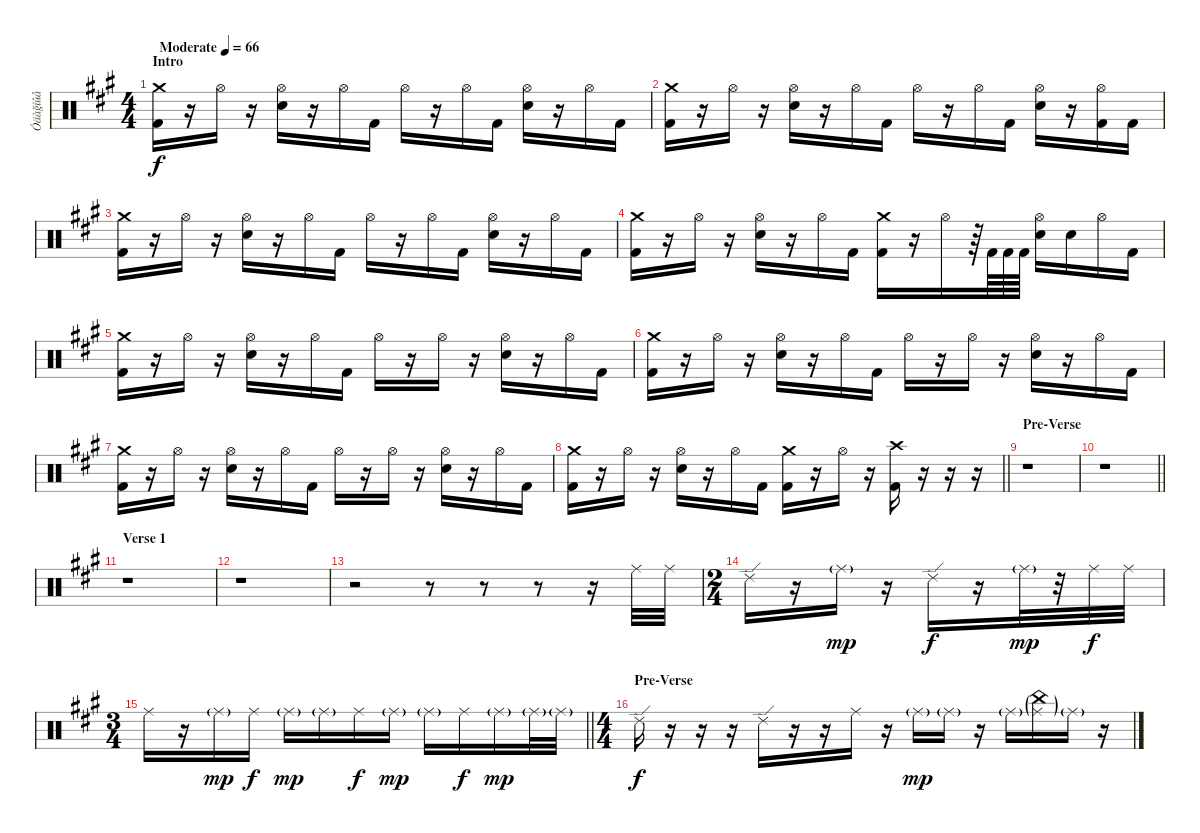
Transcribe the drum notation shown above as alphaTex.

\track ("Óäàğíûå" "Óäàğíûå") {instrument percussion}
\staff {score}
\articulation defaults
\ts (4 4)
\section ("" "Intro")
\tempo (66 "Moderate")
\clef neutral
\ks a
("Crash medium (hit)" "Kick (hit) 2").16{dy f} r.16 "Hi-Hat (open)".16 r.16 ("Hi-Hat (open)" "Electric Snare (hit)").16 r.16 "Hi-Hat (open)".16 "Kick (hit) 2".16 "Hi-Hat (open)".16 r.16 "Hi-Hat (open)".16 "Kick (hit) 2".16 ("Hi-Hat (open)" "Electric Snare (hit)").16 r.16 "Hi-Hat (open)".16 "Kick (hit) 2".16 |
("Crash medium (hit)" "Kick (hit) 2").16 r.16 "Hi-Hat (open)".16 r.16 ("Hi-Hat (open)" "Electric Snare (hit)").16 r.16 "Hi-Hat (open)".16 "Kick (hit) 2".16 "Hi-Hat (open)".16 r.16 "Hi-Hat (open)".16 "Kick (hit) 2".16 ("Hi-Hat (open)" "Electric Snare (hit)").16 r.16 ("Hi-Hat (open)" "Kick (hit) 2").16 "Kick (hit) 2".16 |
("Crash medium (hit)" "Kick (hit) 2").16 r.16 "Hi-Hat (open)".16 r.16 ("Hi-Hat (open)" "Electric Snare (hit)").16 r.16 "Hi-Hat (open)".16 "Kick (hit) 2".16 "Hi-Hat (open)".16 r.16 "Hi-Hat (open)".16 "Kick (hit) 2".16 ("Hi-Hat (open)" "Electric Snare (hit)").16 r.16 "Hi-Hat (open)".16 "Kick (hit) 2".16 |
("Crash medium (hit)" "Kick (hit) 2").16 r.16 "Hi-Hat (open)".16 r.16 ("Hi-Hat (open)" "Electric Snare (hit)").16 r.16 "Hi-Hat (open)".16 "Kick (hit) 2".16 ("Crash medium (hit)" "Kick (hit) 2").16 r.16 "Hi-Hat (open)".16 r.64 "Kick (hit) 2".64 "Kick (hit) 2".64 "Kick (hit) 2".64 ("Hi-Hat (open)" "Electric Snare (hit)").16 "Electric Snare (hit)".16 "Hi-Hat (open)".16 "Kick (hit) 2".16 |
("Crash medium (hit)" "Kick (hit) 2").16 r.16 "Hi-Hat (open)".16 r.16 ("Hi-Hat (open)" "Electric Snare (hit)").16 r.16 "Hi-Hat (open)".16 "Kick (hit) 2".16 "Hi-Hat (open)".16 r.16 "Hi-Hat (open)".16 r.16 ("Hi-Hat (open)" "Electric Snare (hit)").16 r.16 "Hi-Hat (open)".16 "Kick (hit) 2".16 |
("Crash medium (hit)" "Kick (hit) 2").16 r.16 "Hi-Hat (open)".16 r.16 ("Hi-Hat (open)" "Electric Snare (hit)").16 r.16 "Hi-Hat (open)".16 "Kick (hit) 2".16 "Hi-Hat (open)".16 r.16 "Hi-Hat (open)".16 r.16 ("Hi-Hat (open)" "Electric Snare (hit)").16 r.16 "Hi-Hat (open)".16 "Kick (hit) 2".16 |
("Crash medium (hit)" "Kick (hit) 2").16 r.16 "Hi-Hat (open)".16 r.16 ("Hi-Hat (open)" "Electric Snare (hit)").16 r.16 "Hi-Hat (open)".16 "Kick (hit) 2".16 "Hi-Hat (open)".16 r.16 "Hi-Hat (open)".16 r.16 ("Hi-Hat (open)" "Electric Snare (hit)").16 r.16 "Hi-Hat (open)".16 "Kick (hit) 2".16 |
\barLineRight lightlight
("Crash medium (hit)" "Kick (hit) 2").16 r.16 "Hi-Hat (open)".16 r.16 ("Hi-Hat (open)" "Electric Snare (hit)").16 r.16 "Hi-Hat (open)".16 "Kick (hit) 2".16 ("Crash medium (hit)" "Kick (hit) 2").16 r.16 "Hi-Hat (open)".16 r.16 ("Crash high (hit)" "Kick (hit) 2").16 r.16 r.16 r.16 |
\section ("" "Pre-Verse")
r.1 |
\barLineRight lightlight
r.1 |
\section ("" "Verse 1")
r.1 |
r.1 |
r.2 r.8 r.8 r.8 r.16 "Ride (middle)".32 "Ride (middle)".32 |
\ts (2 4)
"Ride (edge) 2".16 r.16 "Ride (middle)"{g}.16{dy mp} r.16 "Ride (edge) 2".16{dy f} r.16 "Ride (middle)"{g}.32{dy mp} r.32 "Ride (middle)".32{dy f} "Ride (middle)".32 |
\ts (3 4)
\barLineRight lightlight "Ride (middle)".16
r.16 "Ride (middle)"{g}.16{dy mp} "Ride (middle)".16{dy f} "Ride (middle)"{g}.16{dy mp} "Ride (middle)"{g}.16 "Ride (middle)".16{dy f} "Ride (middle)"{g}.16{dy mp} "Ride (middle)"{g}.16 "Ride (middle)".16{dy f} "Ride (middle)"{g}.16{dy mp} "Ride (middle)"{g}.32 "Ride (middle)"{g}.32 |
\ts (4 4)
\section ("" "Pre-Verse")
"Ride (edge) 2".16{dy f} r.16 r.16 r.16 "Ride (edge) 2".16 r.16 r.16 "Ride (middle)".16 r.16 "Ride (middle)"{g}.16{dy mp} "Ride (middle)"{g}.16 r.16 "Ride (middle)"{g}.16 ("Ride (middle)"{g} "China (hit)"{g}).16 "Ride (middle)"{g}.16 r.16
